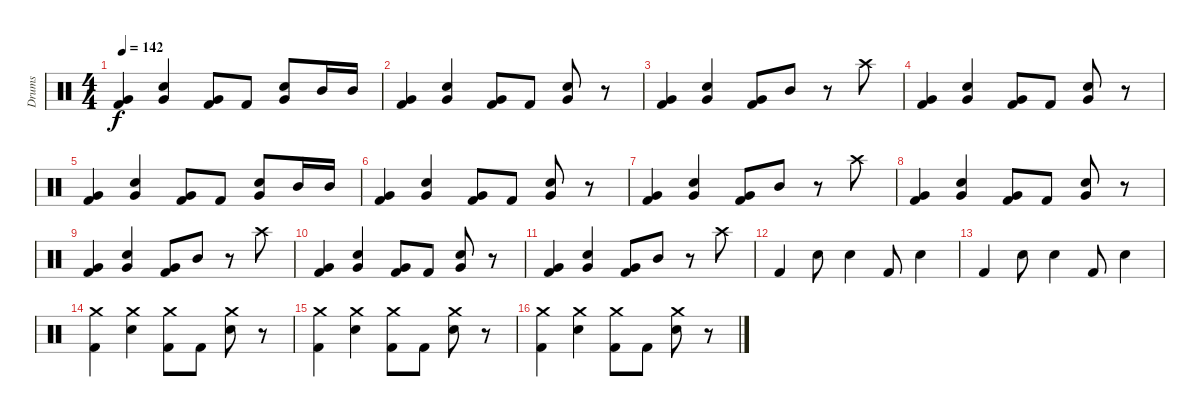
\track ("Drums" "Drums") {instrument percussion}
\staff {score}
\articulation defaults
\ts (4 4)
\tempo 142
\clef neutral
\ks c
("Very Low Tom (hit)" "Kick (hit) 2").4{dy f} ("Very Low Tom (hit)" "Snare (hit) 2").4 ("Very Low Tom (hit)" "Kick (hit) 2").8 "Kick (hit) 2".8 ("Very Low Tom (hit)" "Snare (hit) 2").8 "Mid Tom (hit)".16 "Mid Tom (hit)".16 |
("Very Low Tom (hit)" "Kick (hit) 2").4 ("Very Low Tom (hit)" "Snare (hit) 2").4 ("Very Low Tom (hit)" "Kick (hit) 2").8 "Kick (hit) 2".8 ("Very Low Tom (hit)" "Snare (hit) 2").8 r.8 |
("Very Low Tom (hit)" "Kick (hit) 2").4 ("Very Low Tom (hit)" "Snare (hit) 2").4 ("Very Low Tom (hit)" "Kick (hit) 2").8 "Mid Tom (hit)".8 r.8 "Crash high (hit)".8 |
("Very Low Tom (hit)" "Kick (hit) 2").4 ("Very Low Tom (hit)" "Snare (hit) 2").4 ("Very Low Tom (hit)" "Kick (hit) 2").8 "Kick (hit) 2".8 ("Very Low Tom (hit)" "Snare (hit) 2").8 r.8 |
("Very Low Tom (hit)" "Kick (hit) 2").4 ("Very Low Tom (hit)" "Snare (hit) 2").4 ("Very Low Tom (hit)" "Kick (hit) 2").8 "Kick (hit) 2".8 ("Very Low Tom (hit)" "Snare (hit) 2").8 "Mid Tom (hit)".16 "Mid Tom (hit)".16 |
("Very Low Tom (hit)" "Kick (hit) 2").4 ("Very Low Tom (hit)" "Snare (hit) 2").4 ("Very Low Tom (hit)" "Kick (hit) 2").8 "Kick (hit) 2".8 ("Very Low Tom (hit)" "Snare (hit) 2").8 r.8 |
("Very Low Tom (hit)" "Kick (hit) 2").4 ("Very Low Tom (hit)" "Snare (hit) 2").4 ("Very Low Tom (hit)" "Kick (hit) 2").8 "Mid Tom (hit)".8 r.8 "Crash high (hit)".8 |
("Very Low Tom (hit)" "Kick (hit) 2").4 ("Very Low Tom (hit)" "Snare (hit) 2").4 ("Very Low Tom (hit)" "Kick (hit) 2").8 "Kick (hit) 2".8 ("Very Low Tom (hit)" "Snare (hit) 2").8 r.8 |
("Very Low Tom (hit)" "Kick (hit) 2").4 ("Very Low Tom (hit)" "Snare (hit) 2").4 ("Very Low Tom (hit)" "Kick (hit) 2").8 "Mid Tom (hit)".8 r.8 "Crash high (hit)".8 |
("Very Low Tom (hit)" "Kick (hit) 2").4 ("Very Low Tom (hit)" "Snare (hit) 2").4 ("Very Low Tom (hit)" "Kick (hit) 2").8 "Kick (hit) 2".8 ("Very Low Tom (hit)" "Snare (hit) 2").8 r.8 |
("Very Low Tom (hit)" "Kick (hit) 2").4 ("Very Low Tom (hit)" "Snare (hit) 2").4 ("Very Low Tom (hit)" "Kick (hit) 2").8 "Mid Tom (hit)".8 r.8 "Crash high (hit)".8 |
"Kick (hit) 2".4 "Snare (hit) 2".8 "Snare (hit) 2".4 "Kick (hit) 2".8 "Snare (hit) 2".4 |
"Kick (hit) 2".4 "Snare (hit) 2".8 "Snare (hit) 2".4 "Kick (hit) 2".8 "Snare (hit) 2".4 |
("Crash medium (hit)" "Kick (hit) 2").4 ("Crash medium (hit)" "Snare (hit) 2").4 ("Crash medium (hit)" "Kick (hit) 2").8 "Kick (hit) 2".8 ("Crash medium (hit)" "Snare (hit) 2").8 r.8 |
("Crash medium (hit)" "Kick (hit) 2").4 ("Crash medium (hit)" "Snare (hit) 2").4 ("Crash medium (hit)" "Kick (hit) 2").8 "Kick (hit) 2".8 ("Crash medium (hit)" "Snare (hit) 2").8 r.8 |
("Crash medium (hit)" "Kick (hit) 2").4 ("Crash medium (hit)" "Snare (hit) 2").4 ("Crash medium (hit)" "Kick (hit) 2").8 "Kick (hit) 2".8 ("Crash medium (hit)" "Snare (hit) 2").8 r.8
